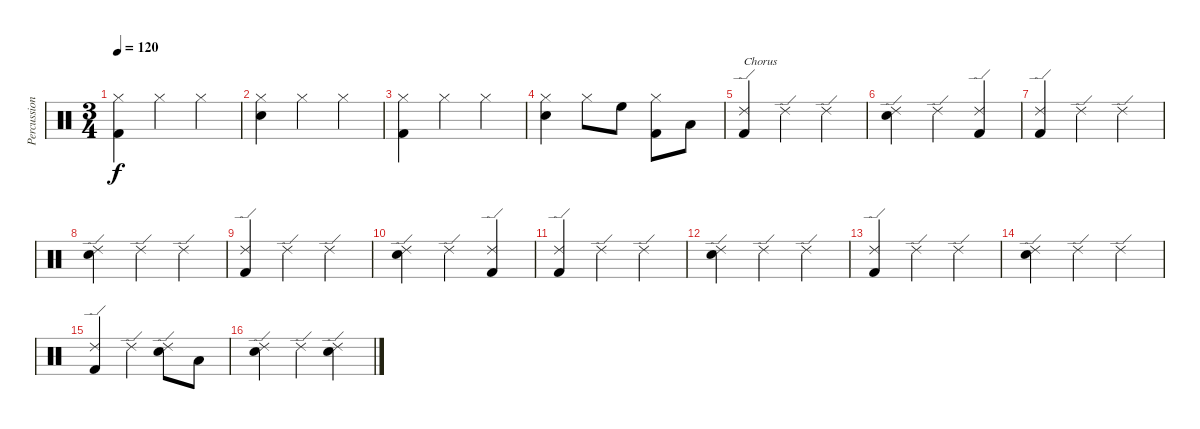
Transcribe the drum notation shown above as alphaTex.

\track ("Percussion" "Percussion") {instrument percussion}
\staff {score}
\articulation defaults
\ts (3 4)
\tempo 120
\clef neutral
\ks c
("Kick (hit) 2" "Hi-Hat (closed)").4{dy f} "Hi-Hat (closed)".4 "Hi-Hat (closed)".4 |
("Snare (hit) 2" "Hi-Hat (closed)").4 "Hi-Hat (closed)".4 "Hi-Hat (closed)".4 |
("Kick (hit) 2" "Hi-Hat (closed)").4 "Hi-Hat (closed)".4 "Hi-Hat (closed)".4 |
("Snare (hit) 2" "Hi-Hat (closed)").4 "Hi-Hat (closed)".8 "High Floor Tom (hit)".8 ("Kick (hit) 2" "Hi-Hat (closed)").8 "Low Tom (hit)".8 |
("Kick (hit) 2" "Ride (edge) 2").4{txt "Chorus"} "Ride (edge) 2".4 "Ride (edge) 2".4 |
("Snare (hit) 2" "Ride (edge) 2").4 "Ride (edge) 2".4 ("Kick (hit) 2" "Ride (edge) 2").4 |
("Kick (hit) 2" "Ride (edge) 2").4 "Ride (edge) 2".4 "Ride (edge) 2".4 |
("Snare (hit) 2" "Ride (edge) 2").4 "Ride (edge) 2".4 "Ride (edge) 2".4 |
("Kick (hit) 2" "Ride (edge) 2").4 "Ride (edge) 2".4 "Ride (edge) 2".4 |
("Snare (hit) 2" "Ride (edge) 2").4 "Ride (edge) 2".4 ("Kick (hit) 2" "Ride (edge) 2").4 |
("Kick (hit) 2" "Ride (edge) 2").4 "Ride (edge) 2".4 "Ride (edge) 2".4 |
("Snare (hit) 2" "Ride (edge) 2").4 "Ride (edge) 2".4 "Ride (edge) 2".4 |
("Kick (hit) 2" "Ride (edge) 2").4 "Ride (edge) 2".4 "Ride (edge) 2".4 |
("Snare (hit) 2" "Ride (edge) 2").4 "Ride (edge) 2".4 "Ride (edge) 2".4 |
("Kick (hit) 2" "Ride (edge) 2").4 "Ride (edge) 2".4 ("Snare (hit) 2" "Ride (edge) 2").8 "Low Tom (hit)".8 |
("Snare (hit) 2" "Ride (edge) 2").4 "Ride (edge) 2".4 ("Snare (hit) 2" "Ride (edge) 2").4
